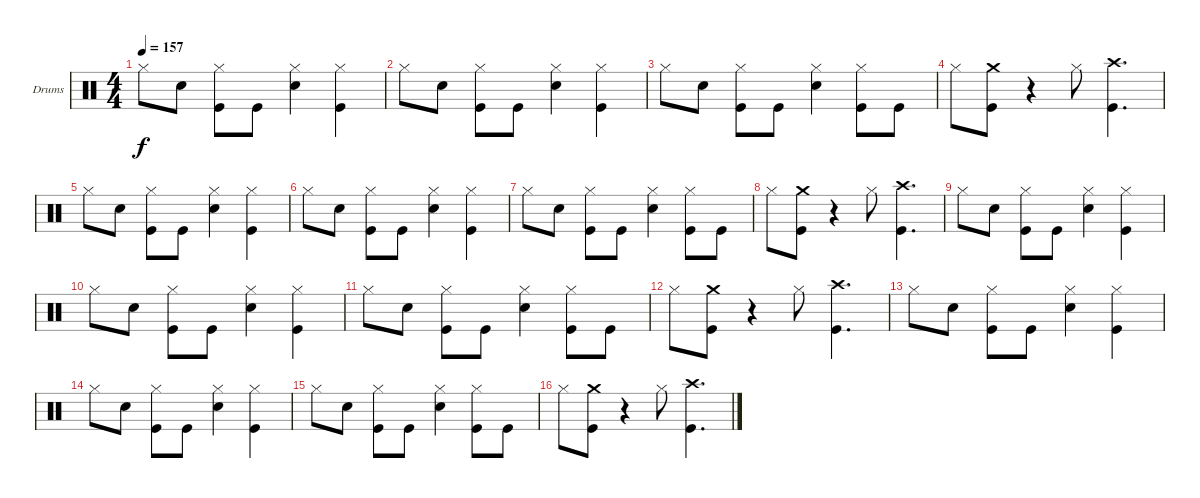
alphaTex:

\defaultSystemsLayout 4
\bracketExtendMode groupsimilarinstruments
\firstSystemTrackNameOrientation horizontal
\otherSystemsTrackNameOrientation horizontal
\track ("Drumkit" "Drums") {instrument percussion}
\staff {score}
\articulation defaults
\ts (4 4)
\tempo 157
\clef neutral
\ks c "Hi-Hat (closed)".8{dy f} "Snare (hit) 2".8
("Hi-Hat (closed)" "Kick (hit)").8 "Kick (hit)".8 ("Hi-Hat (closed)" "Snare (hit) 2").4 ("Hi-Hat (closed)" "Kick (hit)").4 |
"Hi-Hat (closed)".8 "Snare (hit) 2".8 ("Hi-Hat (closed)" "Kick (hit)").8 "Kick (hit)".8 ("Hi-Hat (closed)" "Snare (hit) 2").4 ("Hi-Hat (closed)" "Kick (hit)").4 |
"Hi-Hat (closed)".8 "Snare (hit) 2".8 ("Kick (hit)" "Hi-Hat (closed)").8 "Kick (hit)".8 ("Snare (hit) 2" "Hi-Hat (closed)").4 ("Kick (hit)" "Hi-Hat (closed)").8 "Kick (hit)".8 |
"Hi-Hat (closed)".8 ("Crash medium (hit)" "Kick (hit)").8 r.4 "Hi-Hat (closed)".8 ("Crash high (hit)" "Kick (hit)").4{d} |
"Hi-Hat (closed)".8 "Snare (hit) 2".8 ("Hi-Hat (closed)" "Kick (hit)").8 "Kick (hit)".8 ("Hi-Hat (closed)" "Snare (hit) 2").4 ("Hi-Hat (closed)" "Kick (hit)").4 |
"Hi-Hat (closed)".8 "Snare (hit) 2".8 ("Hi-Hat (closed)" "Kick (hit)").8 "Kick (hit)".8 ("Hi-Hat (closed)" "Snare (hit) 2").4 ("Hi-Hat (closed)" "Kick (hit)").4 |
"Hi-Hat (closed)".8 "Snare (hit) 2".8 ("Kick (hit)" "Hi-Hat (closed)").8 "Kick (hit)".8 ("Snare (hit) 2" "Hi-Hat (closed)").4 ("Kick (hit)" "Hi-Hat (closed)").8 "Kick (hit)".8 |
"Hi-Hat (closed)".8 ("Crash medium (hit)" "Kick (hit)").8 r.4 "Hi-Hat (closed)".8 ("Crash high (hit)" "Kick (hit)").4{d} |
"Hi-Hat (closed)".8 "Snare (hit) 2".8 ("Hi-Hat (closed)" "Kick (hit)").8 "Kick (hit)".8 ("Hi-Hat (closed)" "Snare (hit) 2").4 ("Hi-Hat (closed)" "Kick (hit)").4 |
"Hi-Hat (closed)".8 "Snare (hit) 2".8 ("Hi-Hat (closed)" "Kick (hit)").8 "Kick (hit)".8 ("Hi-Hat (closed)" "Snare (hit) 2").4 ("Hi-Hat (closed)" "Kick (hit)").4 |
"Hi-Hat (closed)".8 "Snare (hit) 2".8 ("Kick (hit)" "Hi-Hat (closed)").8 "Kick (hit)".8 ("Snare (hit) 2" "Hi-Hat (closed)").4 ("Kick (hit)" "Hi-Hat (closed)").8 "Kick (hit)".8 |
"Hi-Hat (closed)".8 ("Crash medium (hit)" "Kick (hit)").8 r.4 "Hi-Hat (closed)".8 ("Crash high (hit)" "Kick (hit)").4{d} |
"Hi-Hat (closed)".8 "Snare (hit) 2".8 ("Hi-Hat (closed)" "Kick (hit)").8 "Kick (hit)".8 ("Hi-Hat (closed)" "Snare (hit) 2").4 ("Hi-Hat (closed)" "Kick (hit)").4 |
"Hi-Hat (closed)".8 "Snare (hit) 2".8 ("Hi-Hat (closed)" "Kick (hit)").8 "Kick (hit)".8 ("Hi-Hat (closed)" "Snare (hit) 2").4 ("Hi-Hat (closed)" "Kick (hit)").4 |
"Hi-Hat (closed)".8 "Snare (hit) 2".8 ("Kick (hit)" "Hi-Hat (closed)").8 "Kick (hit)".8 ("Snare (hit) 2" "Hi-Hat (closed)").4 ("Kick (hit)" "Hi-Hat (closed)").8 "Kick (hit)".8 |
"Hi-Hat (closed)".8 ("Crash medium (hit)" "Kick (hit)").8 r.4 "Hi-Hat (closed)".8 ("Crash high (hit)" "Kick (hit)").4{d}
